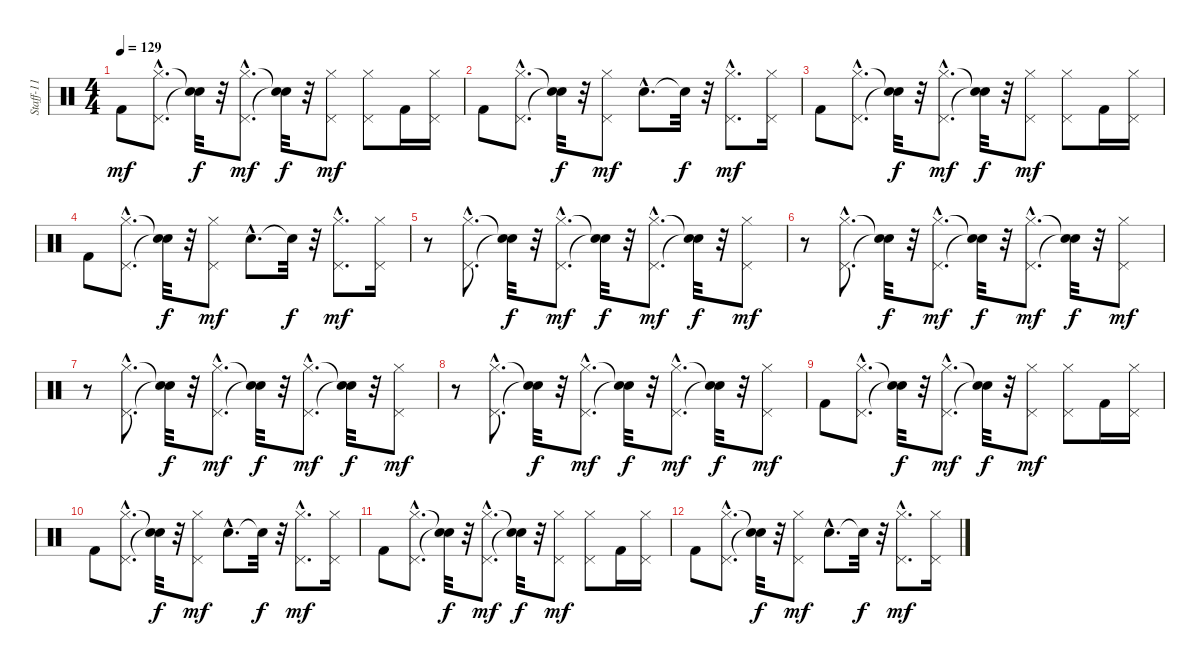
\track ("Staff-11" "Staff-11") {instrument percussion}
\staff {score}
\articulation defaults
\ts (4 4)
\tempo 129
\clef neutral
\ks c "Kick (hit) 2".8{dy mf}
("Hi-Hat (closed)"{hac} "Pedal Hi-Hat (hit)"{hac}).8{d} ("Snare (hit)"{t} "Snare (hit)"{t}).32{dy f} r.32 ("Hi-Hat (closed)"{hac} "Pedal Hi-Hat (hit)"{hac}).8{d dy mf} ("Snare (hit)"{t} "Snare (hit)"{t}).32{dy f} r.32 ("Hi-Hat (closed)" "Pedal Hi-Hat (hit)").8{dy mf} ("Hi-Hat (closed)" "Pedal Hi-Hat (hit)").8 "Kick (hit) 2".16 ("Hi-Hat (closed)" "Pedal Hi-Hat (hit)").16 |
"Kick (hit) 2".8 ("Hi-Hat (closed)"{hac} "Pedal Hi-Hat (hit)"{hac}).8{d} ("Snare (hit)"{t} "Snare (hit)"{t}).32{dy f} r.32 ("Hi-Hat (closed)" "Pedal Hi-Hat (hit)").8{dy mf} "Hand Clap (hit)"{hac}.8{d} "Snare (hit)"{t}.32{dy f} r.32 ("Hi-Hat (closed)"{hac} "Pedal Hi-Hat (hit)"{hac}).8{d dy mf} ("Hi-Hat (closed)" "Pedal Hi-Hat (hit)").16 |
"Kick (hit) 2".8 ("Hi-Hat (closed)"{hac} "Pedal Hi-Hat (hit)"{hac}).8{d} ("Snare (hit)"{t} "Snare (hit)"{t}).32{dy f} r.32 ("Hi-Hat (closed)"{hac} "Pedal Hi-Hat (hit)"{hac}).8{d dy mf} ("Snare (hit)"{t} "Snare (hit)"{t}).32{dy f} r.32 ("Hi-Hat (closed)" "Pedal Hi-Hat (hit)").8{dy mf} ("Hi-Hat (closed)" "Pedal Hi-Hat (hit)").8 "Kick (hit) 2".16 ("Hi-Hat (closed)" "Pedal Hi-Hat (hit)").16 |
"Kick (hit) 2".8 ("Hi-Hat (closed)"{hac} "Pedal Hi-Hat (hit)"{hac}).8{d} ("Snare (hit)"{t} "Snare (hit)"{t}).32{dy f} r.32 ("Hi-Hat (closed)" "Pedal Hi-Hat (hit)").8{dy mf} "Hand Clap (hit)"{hac}.8{d} "Snare (hit)"{t}.32{dy f} r.32 ("Hi-Hat (closed)"{hac} "Pedal Hi-Hat (hit)"{hac}).8{d dy mf} ("Hi-Hat (closed)" "Pedal Hi-Hat (hit)").16 |
r.8 ("Hi-Hat (closed)"{hac} "Pedal Hi-Hat (hit)"{hac}).8{d} ("Snare (hit)"{t} "Snare (hit)"{t}).32{dy f} r.32 ("Hi-Hat (closed)"{hac} "Pedal Hi-Hat (hit)"{hac}).8{d dy mf} ("Snare (hit)"{t} "Snare (hit)"{t}).32{dy f} r.32 ("Hi-Hat (closed)"{hac} "Pedal Hi-Hat (hit)"{hac}).8{d dy mf} ("Snare (hit)"{t} "Snare (hit)"{t}).32{dy f} r.32 ("Hi-Hat (closed)" "Pedal Hi-Hat (hit)").8{dy mf} |
r.8 ("Hi-Hat (closed)"{hac} "Pedal Hi-Hat (hit)"{hac}).8{d} ("Snare (hit)"{t} "Snare (hit)"{t}).32{dy f} r.32 ("Hi-Hat (closed)"{hac} "Pedal Hi-Hat (hit)"{hac}).8{d dy mf} ("Snare (hit)"{t} "Snare (hit)"{t}).32{dy f} r.32 ("Hi-Hat (closed)"{hac} "Pedal Hi-Hat (hit)"{hac}).8{d dy mf} ("Snare (hit)"{t} "Snare (hit)"{t}).32{dy f} r.32 ("Hi-Hat (closed)" "Pedal Hi-Hat (hit)").8{dy mf} |
r.8 ("Hi-Hat (closed)"{hac} "Pedal Hi-Hat (hit)"{hac}).8{d} ("Snare (hit)"{t} "Snare (hit)"{t}).32{dy f} r.32 ("Hi-Hat (closed)"{hac} "Pedal Hi-Hat (hit)"{hac}).8{d dy mf} ("Snare (hit)"{t} "Snare (hit)"{t}).32{dy f} r.32 ("Hi-Hat (closed)"{hac} "Pedal Hi-Hat (hit)"{hac}).8{d dy mf} ("Snare (hit)"{t} "Snare (hit)"{t}).32{dy f} r.32 ("Hi-Hat (closed)" "Pedal Hi-Hat (hit)").8{dy mf} |
r.8 ("Hi-Hat (closed)"{hac} "Pedal Hi-Hat (hit)"{hac}).8{d} ("Snare (hit)"{t} "Snare (hit)"{t}).32{dy f} r.32 ("Hi-Hat (closed)"{hac} "Pedal Hi-Hat (hit)"{hac}).8{d dy mf} ("Snare (hit)"{t} "Snare (hit)"{t}).32{dy f} r.32 ("Hi-Hat (closed)"{hac} "Pedal Hi-Hat (hit)"{hac}).8{d dy mf} ("Snare (hit)"{t} "Snare (hit)"{t}).32{dy f} r.32 ("Hi-Hat (closed)" "Pedal Hi-Hat (hit)").8{dy mf} |
"Kick (hit) 2".8 ("Hi-Hat (closed)"{hac} "Pedal Hi-Hat (hit)"{hac}).8{d} ("Snare (hit)"{t} "Snare (hit)"{t}).32{dy f} r.32 ("Hi-Hat (closed)"{hac} "Pedal Hi-Hat (hit)"{hac}).8{d dy mf} ("Snare (hit)"{t} "Snare (hit)"{t}).32{dy f} r.32 ("Hi-Hat (closed)" "Pedal Hi-Hat (hit)").8{dy mf} ("Hi-Hat (closed)" "Pedal Hi-Hat (hit)").8 "Kick (hit) 2".16 ("Hi-Hat (closed)" "Pedal Hi-Hat (hit)").16 |
"Kick (hit) 2".8 ("Hi-Hat (closed)"{hac} "Pedal Hi-Hat (hit)"{hac}).8{d} ("Snare (hit)"{t} "Snare (hit)"{t}).32{dy f} r.32 ("Hi-Hat (closed)" "Pedal Hi-Hat (hit)").8{dy mf} "Hand Clap (hit)"{hac}.8{d} "Snare (hit)"{t}.32{dy f} r.32 ("Hi-Hat (closed)"{hac} "Pedal Hi-Hat (hit)"{hac}).8{d dy mf} ("Hi-Hat (closed)" "Pedal Hi-Hat (hit)").16 |
"Kick (hit) 2".8 ("Hi-Hat (closed)"{hac} "Pedal Hi-Hat (hit)"{hac}).8{d} ("Snare (hit)"{t} "Snare (hit)"{t}).32{dy f} r.32 ("Hi-Hat (closed)"{hac} "Pedal Hi-Hat (hit)"{hac}).8{d dy mf} ("Snare (hit)"{t} "Snare (hit)"{t}).32{dy f} r.32 ("Hi-Hat (closed)" "Pedal Hi-Hat (hit)").8{dy mf} ("Hi-Hat (closed)" "Pedal Hi-Hat (hit)").8 "Kick (hit) 2".16 ("Hi-Hat (closed)" "Pedal Hi-Hat (hit)").16 |
"Kick (hit) 2".8 ("Hi-Hat (closed)"{hac} "Pedal Hi-Hat (hit)"{hac}).8{d} ("Snare (hit)"{t} "Snare (hit)"{t}).32{dy f} r.32 ("Hi-Hat (closed)" "Pedal Hi-Hat (hit)").8{dy mf} "Hand Clap (hit)"{hac}.8{d} "Snare (hit)"{t}.32{dy f} r.32 ("Hi-Hat (closed)"{hac} "Pedal Hi-Hat (hit)"{hac}).8{d dy mf} ("Hi-Hat (closed)" "Pedal Hi-Hat (hit)").16
